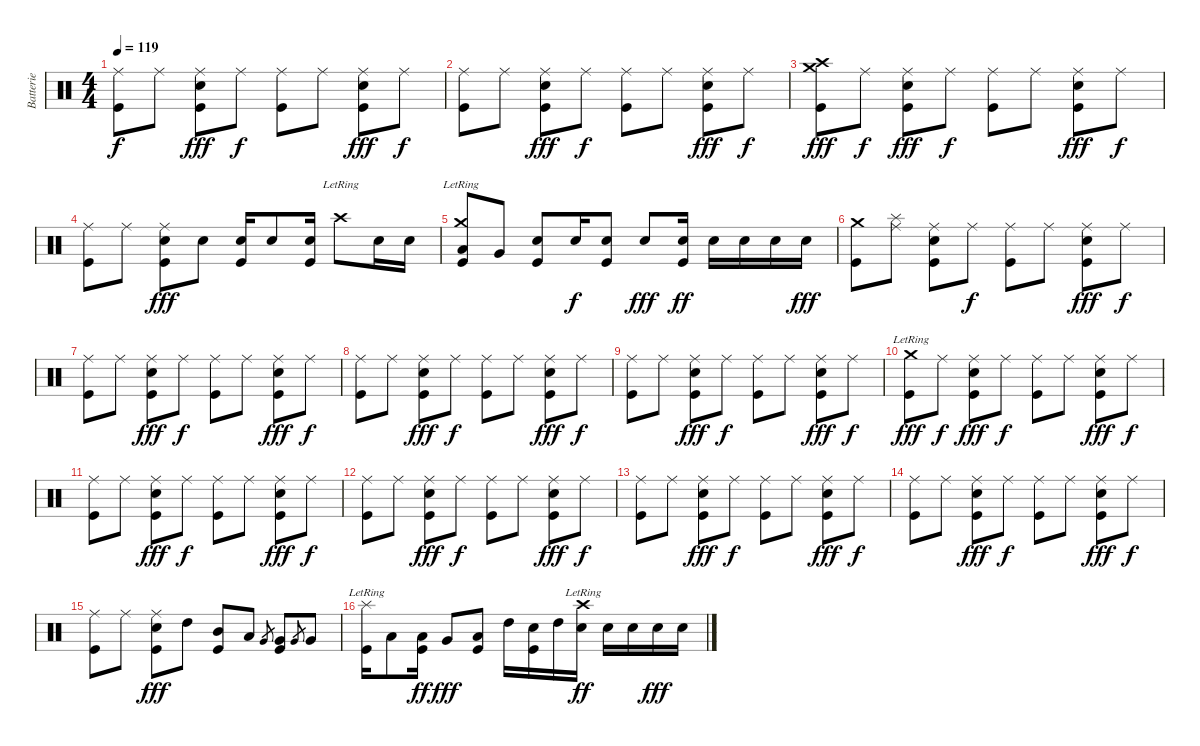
\track ("Batterie" "Batterie") {instrument percussion}
\staff {score}
\articulation defaults
\ts (4 4)
\tempo 119
\clef neutral
\ks c
("Ride (middle)" "Kick (hit)").8{dy f} "Ride (middle)".8 ("Ride (middle)" "Kick (hit)" "Electric Snare (hit)").8{dy fff} "Ride (middle)".8{dy f} ("Ride (middle)" "Kick (hit)").8 "Ride (middle)".8 ("Ride (middle)" "Kick (hit)" "Electric Snare (hit)").8{dy fff} "Ride (middle)".8{dy f} |
("Ride (middle)" "Kick (hit)").8 "Ride (middle)".8 ("Ride (middle)" "Kick (hit)" "Electric Snare (hit)").8{dy fff} "Ride (middle)".8{dy f} ("Ride (middle)" "Kick (hit)").8 "Ride (middle)".8 ("Ride (middle)" "Kick (hit)" "Electric Snare (hit)").8{dy fff} "Ride (middle)".8{dy f} |
("Kick (hit)" "Crash medium (hit)" "Crash high (hit)").8{dy fff} "Ride (middle)".8{dy f} ("Ride (middle)" "Kick (hit)" "Electric Snare (hit)").8{dy fff} "Ride (middle)".8{dy f} ("Ride (middle)" "Kick (hit)").8 "Ride (middle)".8 ("Ride (middle)" "Kick (hit)" "Electric Snare (hit)").8{dy fff} "Ride (middle)".8{dy f} |
("Ride (middle)" "Kick (hit)").8 "Ride (middle)".8 ("Ride (middle)" "Kick (hit)" "Electric Snare (hit)").8{dy fff} "Electric Snare (hit)".8 ("Kick (hit)" "Electric Snare (hit)").16 "Electric Snare (hit)".8 ("Kick (hit)" "Electric Snare (hit)").16 "Crash high (hit)"{lr}.8 "Electric Snare (hit)".16 "Electric Snare (hit)".16 |
("Crash medium (hit)"{lr} "Kick (hit)" "Low Tom (hit)").8 "Very Low Tom (hit)".8 ("Kick (hit)" "Electric Snare (hit)").8 "Electric Snare (hit)".16{dy f} ("Kick (hit)" "Electric Snare (hit)").8 "Electric Snare (hit)".8{dy fff} ("Kick (hit)" "Electric Snare (hit)").16{dy ff} "Electric Snare (hit)".16 "Electric Snare (hit)".16 "Electric Snare (hit)".16 "Electric Snare (hit)".16{dy fff} |
("Kick (hit)" "Crash medium (hit)").8 ("Ride (middle)" "Splash (hit)").8 ("Ride (middle)" "Kick (hit)" "Electric Snare (hit)").8 "Ride (middle)".8{dy f} ("Ride (middle)" "Kick (hit)").8 "Ride (middle)".8 ("Ride (middle)" "Kick (hit)" "Electric Snare (hit)").8{dy fff} "Ride (middle)".8{dy f} |
("Ride (middle)" "Kick (hit)").8 "Ride (middle)".8 ("Ride (middle)" "Kick (hit)" "Electric Snare (hit)").8{dy fff} "Ride (middle)".8{dy f} ("Ride (middle)" "Kick (hit)").8 "Ride (middle)".8 ("Ride (middle)" "Kick (hit)" "Electric Snare (hit)").8{dy fff} "Ride (middle)".8{dy f} |
("Ride (middle)" "Kick (hit)").8 "Ride (middle)".8 ("Ride (middle)" "Kick (hit)" "Electric Snare (hit)").8{dy fff} "Ride (middle)".8{dy f} ("Ride (middle)" "Kick (hit)").8 "Ride (middle)".8 ("Ride (middle)" "Kick (hit)" "Electric Snare (hit)").8{dy fff} "Ride (middle)".8{dy f} |
("Ride (middle)" "Kick (hit)").8 "Ride (middle)".8 ("Ride (middle)" "Kick (hit)" "Electric Snare (hit)").8{dy fff} "Ride (middle)".8{dy f} ("Ride (middle)" "Kick (hit)").8 "Ride (middle)".8 ("Ride (middle)" "Kick (hit)" "Electric Snare (hit)").8{dy fff} "Ride (middle)".8{dy f} |
("Kick (hit)" "Crash medium (hit)"{lr}).8{dy fff} "Ride (middle)".8{dy f} ("Ride (middle)" "Kick (hit)" "Electric Snare (hit)").8{dy fff} "Ride (middle)".8{dy f} ("Ride (middle)" "Kick (hit)").8 "Ride (middle)".8 ("Ride (middle)" "Kick (hit)" "Electric Snare (hit)").8{dy fff} "Ride (middle)".8{dy f} |
("Ride (middle)" "Kick (hit)").8 "Ride (middle)".8 ("Ride (middle)" "Kick (hit)" "Electric Snare (hit)").8{dy fff} "Ride (middle)".8{dy f} ("Ride (middle)" "Kick (hit)").8 "Ride (middle)".8 ("Ride (middle)" "Kick (hit)" "Electric Snare (hit)").8{dy fff} "Ride (middle)".8{dy f} |
("Ride (middle)" "Kick (hit)").8 "Ride (middle)".8 ("Ride (middle)" "Kick (hit)" "Electric Snare (hit)").8{dy fff} "Ride (middle)".8{dy f} ("Ride (middle)" "Kick (hit)").8 "Ride (middle)".8 ("Ride (middle)" "Kick (hit)" "Electric Snare (hit)").8{dy fff} "Ride (middle)".8{dy f} |
("Ride (middle)" "Kick (hit)").8 "Ride (middle)".8 ("Ride (middle)" "Kick (hit)" "Electric Snare (hit)").8{dy fff} "Ride (middle)".8{dy f} ("Ride (middle)" "Kick (hit)").8 "Ride (middle)".8 ("Ride (middle)" "Kick (hit)" "Electric Snare (hit)").8{dy fff} "Ride (middle)".8{dy f} |
("Ride (middle)" "Kick (hit)").8 "Ride (middle)".8 ("Ride (middle)" "Kick (hit)" "Electric Snare (hit)").8{dy fff} "Ride (middle)".8{dy f} ("Ride (middle)" "Kick (hit)").8 "Ride (middle)".8 ("Ride (middle)" "Kick (hit)" "Electric Snare (hit)").8{dy fff} "Ride (middle)".8{dy f} |
("Ride (middle)" "Kick (hit)").8 "Ride (middle)".8 ("Ride (middle)" "Kick (hit)" "Electric Snare (hit)").8{dy fff} "High Tom (hit)".8 ("Kick (hit)" "Mid Tom (hit)").8 "Low Tom (hit)".8 "Very Low Tom (hit)".8{gr} ("Kick (hit)" "Very Low Tom (hit)").8 "Very Low Tom (hit)".8{gr} "Very Low Tom (hit)".8 |
("Splash (hit)"{lr} "Kick (hit)").16 "Low Tom (hit)".8 ("Low Tom (hit)" "Kick (hit)").16{dy ff} "Very Low Tom (hit)".8{dy fff} ("Kick (hit)" "Low Floor Tom (hit)").8 "High Tom (hit)".16 ("Kick (hit)" "Electric Snare (hit)").16 "High Tom (hit)".16 ("Crash high (hit)"{lr} "Electric Snare (hit)").16{dy ff} "Electric Snare (hit)".16 "Electric Snare (hit)".16 "Electric Snare (hit)".16{dy fff} "Electric Snare (hit)".16
